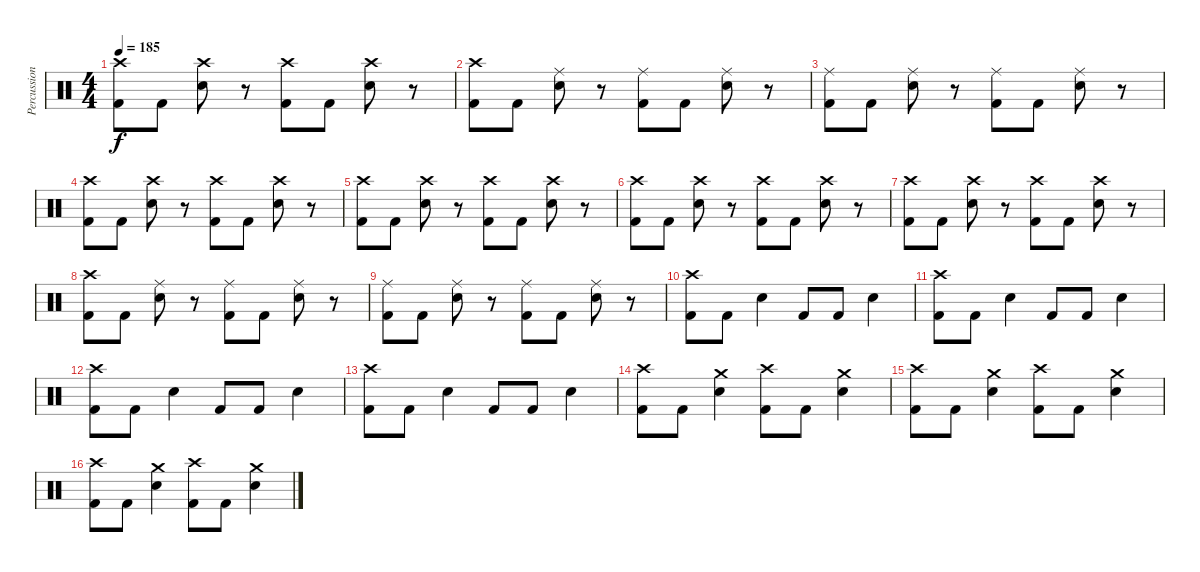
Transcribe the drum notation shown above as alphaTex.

\track ("Percussion" "Percussion") {instrument percussion}
\staff {score}
\articulation defaults
\ts (4 4)
\tempo 185
\clef neutral
\ks c
("Crash high (hit)" "Kick (hit) 2").8{dy f} "Kick (hit) 2".8 ("Crash high (hit)" "Snare (hit) 2").8 r.8 ("Crash high (hit)" "Kick (hit) 2").8 "Kick (hit) 2".8 ("Crash high (hit)" "Snare (hit) 2").8 r.8 |
("Crash high (hit)" "Kick (hit) 2").8 "Kick (hit) 2".8 ("Ride (middle)" "Snare (hit) 2").8 r.8 ("Ride (middle)" "Kick (hit) 2").8 "Kick (hit) 2".8 ("Ride (middle)" "Snare (hit) 2").8 r.8 |
("Ride (middle)" "Kick (hit) 2").8 "Kick (hit) 2".8 ("Ride (middle)" "Snare (hit) 2").8 r.8 ("Ride (middle)" "Kick (hit) 2").8 "Kick (hit) 2".8 ("Ride (middle)" "Snare (hit) 2").8 r.8 |
("Crash high (hit)" "Kick (hit) 2").8 "Kick (hit) 2".8 ("Crash high (hit)" "Snare (hit) 2").8 r.8 ("Crash high (hit)" "Kick (hit) 2").8 "Kick (hit) 2".8 ("Crash high (hit)" "Snare (hit) 2").8 r.8 |
("Crash high (hit)" "Kick (hit) 2").8 "Kick (hit) 2".8 ("Crash high (hit)" "Snare (hit) 2").8 r.8 ("Crash high (hit)" "Kick (hit) 2").8 "Kick (hit) 2".8 ("Crash high (hit)" "Snare (hit) 2").8 r.8 |
("Crash high (hit)" "Kick (hit) 2").8 "Kick (hit) 2".8 ("Crash high (hit)" "Snare (hit) 2").8 r.8 ("Crash high (hit)" "Kick (hit) 2").8 "Kick (hit) 2".8 ("Crash high (hit)" "Snare (hit) 2").8 r.8 |
("Crash high (hit)" "Kick (hit) 2").8 "Kick (hit) 2".8 ("Crash high (hit)" "Snare (hit) 2").8 r.8 ("Crash high (hit)" "Kick (hit) 2").8 "Kick (hit) 2".8 ("Crash high (hit)" "Snare (hit) 2").8 r.8 |
("Crash high (hit)" "Kick (hit) 2").8 "Kick (hit) 2".8 ("Ride (middle)" "Snare (hit) 2").8 r.8 ("Ride (middle)" "Kick (hit) 2").8 "Kick (hit) 2".8 ("Ride (middle)" "Snare (hit) 2").8 r.8 |
("Ride (middle)" "Kick (hit) 2").8 "Kick (hit) 2".8 ("Ride (middle)" "Snare (hit) 2").8 r.8 ("Ride (middle)" "Kick (hit) 2").8 "Kick (hit) 2".8 ("Ride (middle)" "Snare (hit) 2").8 r.8 |
("Crash high (hit)" "Kick (hit) 2").8 "Kick (hit) 2".8 "Snare (hit) 2".4 "Kick (hit) 2".8 "Kick (hit) 2".8 "Snare (hit) 2".4 |
("Crash high (hit)" "Kick (hit) 2").8 "Kick (hit) 2".8 "Snare (hit) 2".4 "Kick (hit) 2".8 "Kick (hit) 2".8 "Snare (hit) 2".4 |
("Crash high (hit)" "Kick (hit) 2").8 "Kick (hit) 2".8 "Snare (hit) 2".4 "Kick (hit) 2".8 "Kick (hit) 2".8 "Snare (hit) 2".4 |
("Crash high (hit)" "Kick (hit) 2").8 "Kick (hit) 2".8 "Snare (hit) 2".4 "Kick (hit) 2".8 "Kick (hit) 2".8 "Snare (hit) 2".4 |
("Crash high (hit)" "Kick (hit) 2").8 "Kick (hit) 2".8 ("Crash medium (hit)" "Snare (hit) 2").4 ("Crash high (hit)" "Kick (hit) 2").8 "Kick (hit) 2".8 ("Crash medium (hit)" "Snare (hit) 2").4 |
("Crash high (hit)" "Kick (hit) 2").8 "Kick (hit) 2".8 ("Crash medium (hit)" "Snare (hit) 2").4 ("Crash high (hit)" "Kick (hit) 2").8 "Kick (hit) 2".8 ("Crash medium (hit)" "Snare (hit) 2").4 |
("Crash high (hit)" "Kick (hit) 2").8 "Kick (hit) 2".8 ("Crash medium (hit)" "Snare (hit) 2").4 ("Crash high (hit)" "Kick (hit) 2").8 "Kick (hit) 2".8 ("Crash medium (hit)" "Snare (hit) 2").4
